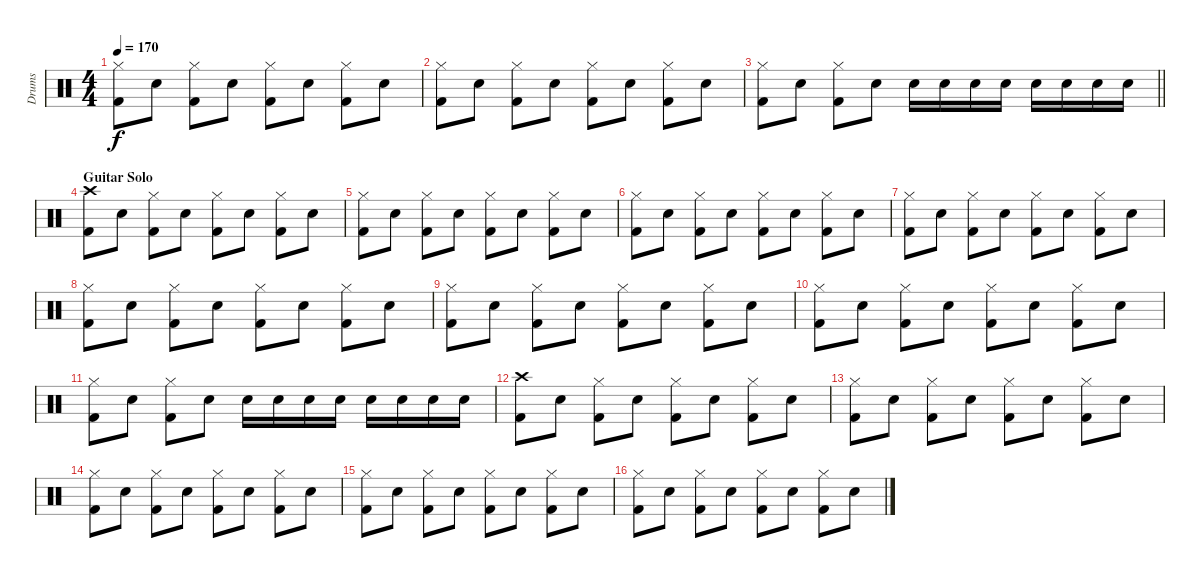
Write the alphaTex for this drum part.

\track ("Drums" "Drums") {instrument percussion}
\staff {score}
\articulation defaults
\ts (4 4)
\tempo 170
\clef neutral
\ks c
("Hi-Hat (closed)" "Kick (hit) 2").8{dy f} "Electric Snare (hit)".8 ("Hi-Hat (closed)" "Kick (hit) 2").8 "Electric Snare (hit)".8 ("Hi-Hat (closed)" "Kick (hit) 2").8 "Electric Snare (hit)".8 ("Hi-Hat (closed)" "Kick (hit) 2").8 "Electric Snare (hit)".8 |
("Hi-Hat (closed)" "Kick (hit) 2").8 "Electric Snare (hit)".8 ("Hi-Hat (closed)" "Kick (hit) 2").8 "Electric Snare (hit)".8 ("Hi-Hat (closed)" "Kick (hit) 2").8 "Electric Snare (hit)".8 ("Hi-Hat (closed)" "Kick (hit) 2").8 "Electric Snare (hit)".8 |
\barLineRight lightlight
("Hi-Hat (closed)" "Kick (hit) 2").8 "Electric Snare (hit)".8 ("Hi-Hat (closed)" "Kick (hit) 2").8 "Electric Snare (hit)".8 "Electric Snare (hit)".16 "Electric Snare (hit)".16 "Electric Snare (hit)".16 "Electric Snare (hit)".16 "Electric Snare (hit)".16 "Electric Snare (hit)".16 "Electric Snare (hit)".16 "Electric Snare (hit)".16 |
\section ("" "Guitar Solo")
("Crash high (hit)" "Kick (hit) 2").8{volume 11} "Electric Snare (hit)".8 ("Hi-Hat (closed)" "Kick (hit) 2").8 "Electric Snare (hit)".8 ("Hi-Hat (closed)" "Kick (hit) 2").8 "Electric Snare (hit)".8 ("Hi-Hat (closed)" "Kick (hit) 2").8 "Electric Snare (hit)".8 |
("Hi-Hat (closed)" "Kick (hit) 2").8 "Electric Snare (hit)".8 ("Hi-Hat (closed)" "Kick (hit) 2").8 "Electric Snare (hit)".8 ("Hi-Hat (closed)" "Kick (hit) 2").8 "Electric Snare (hit)".8 ("Hi-Hat (closed)" "Kick (hit) 2").8 "Electric Snare (hit)".8 |
("Hi-Hat (closed)" "Kick (hit) 2").8 "Electric Snare (hit)".8 ("Hi-Hat (closed)" "Kick (hit) 2").8 "Electric Snare (hit)".8 ("Hi-Hat (closed)" "Kick (hit) 2").8 "Electric Snare (hit)".8 ("Hi-Hat (closed)" "Kick (hit) 2").8 "Electric Snare (hit)".8 |
("Hi-Hat (closed)" "Kick (hit) 2").8 "Electric Snare (hit)".8 ("Hi-Hat (closed)" "Kick (hit) 2").8 "Electric Snare (hit)".8 ("Hi-Hat (closed)" "Kick (hit) 2").8 "Electric Snare (hit)".8 ("Hi-Hat (closed)" "Kick (hit) 2").8 "Electric Snare (hit)".8 |
("Hi-Hat (closed)" "Kick (hit) 2").8 "Electric Snare (hit)".8 ("Hi-Hat (closed)" "Kick (hit) 2").8 "Electric Snare (hit)".8 ("Hi-Hat (closed)" "Kick (hit) 2").8 "Electric Snare (hit)".8 ("Hi-Hat (closed)" "Kick (hit) 2").8 "Electric Snare (hit)".8 |
("Hi-Hat (closed)" "Kick (hit) 2").8 "Electric Snare (hit)".8 ("Hi-Hat (closed)" "Kick (hit) 2").8 "Electric Snare (hit)".8 ("Hi-Hat (closed)" "Kick (hit) 2").8 "Electric Snare (hit)".8 ("Hi-Hat (closed)" "Kick (hit) 2").8 "Electric Snare (hit)".8 |
("Hi-Hat (closed)" "Kick (hit) 2").8 "Electric Snare (hit)".8 ("Hi-Hat (closed)" "Kick (hit) 2").8 "Electric Snare (hit)".8 ("Hi-Hat (closed)" "Kick (hit) 2").8 "Electric Snare (hit)".8 ("Hi-Hat (closed)" "Kick (hit) 2").8 "Electric Snare (hit)".8 |
("Hi-Hat (closed)" "Kick (hit) 2").8 "Electric Snare (hit)".8 ("Hi-Hat (closed)" "Kick (hit) 2").8 "Electric Snare (hit)".8 "Electric Snare (hit)".16 "Electric Snare (hit)".16 "Electric Snare (hit)".16 "Electric Snare (hit)".16 "Electric Snare (hit)".16 "Electric Snare (hit)".16 "Electric Snare (hit)".16 "Electric Snare (hit)".16 |
("Crash high (hit)" "Kick (hit) 2").8{volume 11} "Electric Snare (hit)".8 ("Hi-Hat (closed)" "Kick (hit) 2").8 "Electric Snare (hit)".8 ("Hi-Hat (closed)" "Kick (hit) 2").8 "Electric Snare (hit)".8 ("Hi-Hat (closed)" "Kick (hit) 2").8 "Electric Snare (hit)".8 |
("Hi-Hat (closed)" "Kick (hit) 2").8 "Electric Snare (hit)".8 ("Hi-Hat (closed)" "Kick (hit) 2").8 "Electric Snare (hit)".8 ("Hi-Hat (closed)" "Kick (hit) 2").8 "Electric Snare (hit)".8 ("Hi-Hat (closed)" "Kick (hit) 2").8 "Electric Snare (hit)".8 |
("Hi-Hat (closed)" "Kick (hit) 2").8 "Electric Snare (hit)".8 ("Hi-Hat (closed)" "Kick (hit) 2").8 "Electric Snare (hit)".8 ("Hi-Hat (closed)" "Kick (hit) 2").8 "Electric Snare (hit)".8 ("Hi-Hat (closed)" "Kick (hit) 2").8 "Electric Snare (hit)".8 |
("Hi-Hat (closed)" "Kick (hit) 2").8 "Electric Snare (hit)".8 ("Hi-Hat (closed)" "Kick (hit) 2").8 "Electric Snare (hit)".8 ("Hi-Hat (closed)" "Kick (hit) 2").8 "Electric Snare (hit)".8 ("Hi-Hat (closed)" "Kick (hit) 2").8 "Electric Snare (hit)".8 |
("Hi-Hat (closed)" "Kick (hit) 2").8 "Electric Snare (hit)".8 ("Hi-Hat (closed)" "Kick (hit) 2").8 "Electric Snare (hit)".8 ("Hi-Hat (closed)" "Kick (hit) 2").8 "Electric Snare (hit)".8 ("Hi-Hat (closed)" "Kick (hit) 2").8 "Electric Snare (hit)".8
